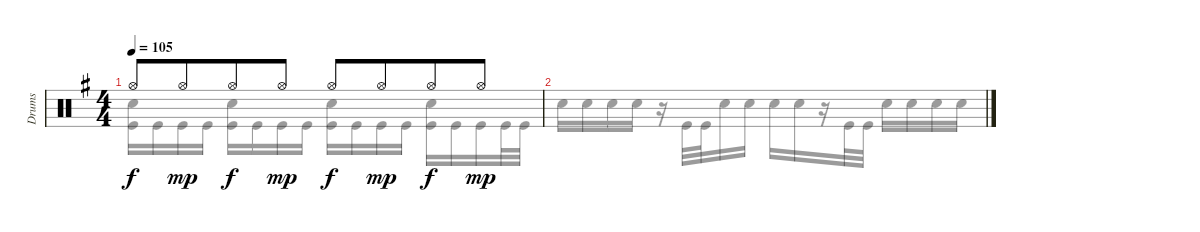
\track ("Drums" "Drums") {instrument percussion}
\staff {score}
\articulation defaults
\voice
\ts (4 4)
\tempo 105
\clef neutral
\ks eminor "Hi-Hat (open)".8{dy f} "Hi-Hat (open)".8{dy mp beam merge} "Hi-Hat (open)".8{dy f} "Hi-Hat (open)".8{dy mp} "Hi-Hat (open)".8{dy f} "Hi-Hat (open)".8{dy mp beam merge} "Hi-Hat (open)".8{dy f} "Hi-Hat (open)".8{dy mp}
|
\voice
\clef neutral
\ks eminor
("Snare (hit) 2" "Kick (hit)").16{dy f} "Kick (hit)".16 "Kick (hit)".16 "Kick (hit)".16 ("Snare (hit) 2" "Kick (hit)").16 "Kick (hit)".16 "Kick (hit)".16 "Kick (hit)".16 ("Snare (hit) 2" "Kick (hit)").16 "Kick (hit)".16 "Kick (hit)".16 "Kick (hit)".16 ("Snare (hit) 2" "Kick (hit)").16 "Kick (hit)".16 "Kick (hit)".16 "Kick (hit)".32 "Kick (hit)".32 |
"Snare (hit) 2".16 "Snare (hit) 2".16 "Snare (hit) 2".16 "Snare (hit) 2".16 r.16 "Kick (hit)".32 "Kick (hit)".32 "Snare (hit) 2".16 "Snare (hit) 2".16 "Snare (hit) 2".16 "Snare (hit) 2".16 r.16 "Kick (hit)".32 "Kick (hit)".32 "Snare (hit) 2".16 "Snare (hit) 2".16 "Snare (hit) 2".16 "Snare (hit) 2".16
